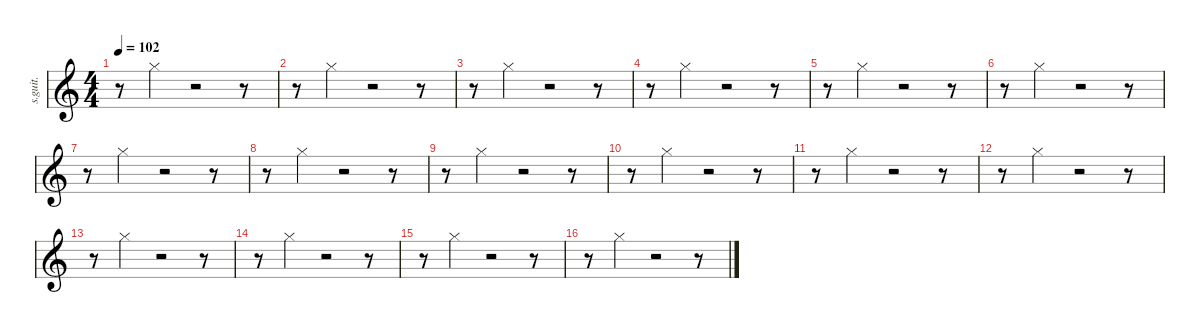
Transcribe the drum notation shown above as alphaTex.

\defaultSystemsLayout 4
\hideDynamics
\bracketExtendMode nobrackets
\track ("Hi Hat" "s.guit.") {instrument percussion}
\staff {score}
\articulation defaults
\ts (4 4)
\beaming (8 2 2 2 2)
\tempo 102
\clef g2
\ks c
r.8{dy f} "Hi-Hat (closed)".4 r.2 r.8 |
r.8 "Hi-Hat (closed)".4 r.2 r.8 |
r.8 "Hi-Hat (closed)".4 r.2 r.8 |
r.8 "Hi-Hat (closed)".4 r.2 r.8 |
r.8 "Hi-Hat (closed)".4 r.2 r.8 |
r.8 "Hi-Hat (closed)".4 r.2 r.8 |
r.8 "Hi-Hat (closed)".4 r.2 r.8 |
r.8 "Hi-Hat (closed)".4 r.2 r.8 |
r.8 "Hi-Hat (closed)".4 r.2 r.8 |
r.8 "Hi-Hat (closed)".4 r.2 r.8 |
r.8 "Hi-Hat (closed)".4 r.2 r.8 |
r.8 "Hi-Hat (closed)".4 r.2 r.8 |
r.8 "Hi-Hat (closed)".4 r.2 r.8 |
r.8 "Hi-Hat (closed)".4 r.2 r.8 |
r.8 "Hi-Hat (closed)".4 r.2 r.8 |
r.8 "Hi-Hat (closed)".4 r.2 r.8
